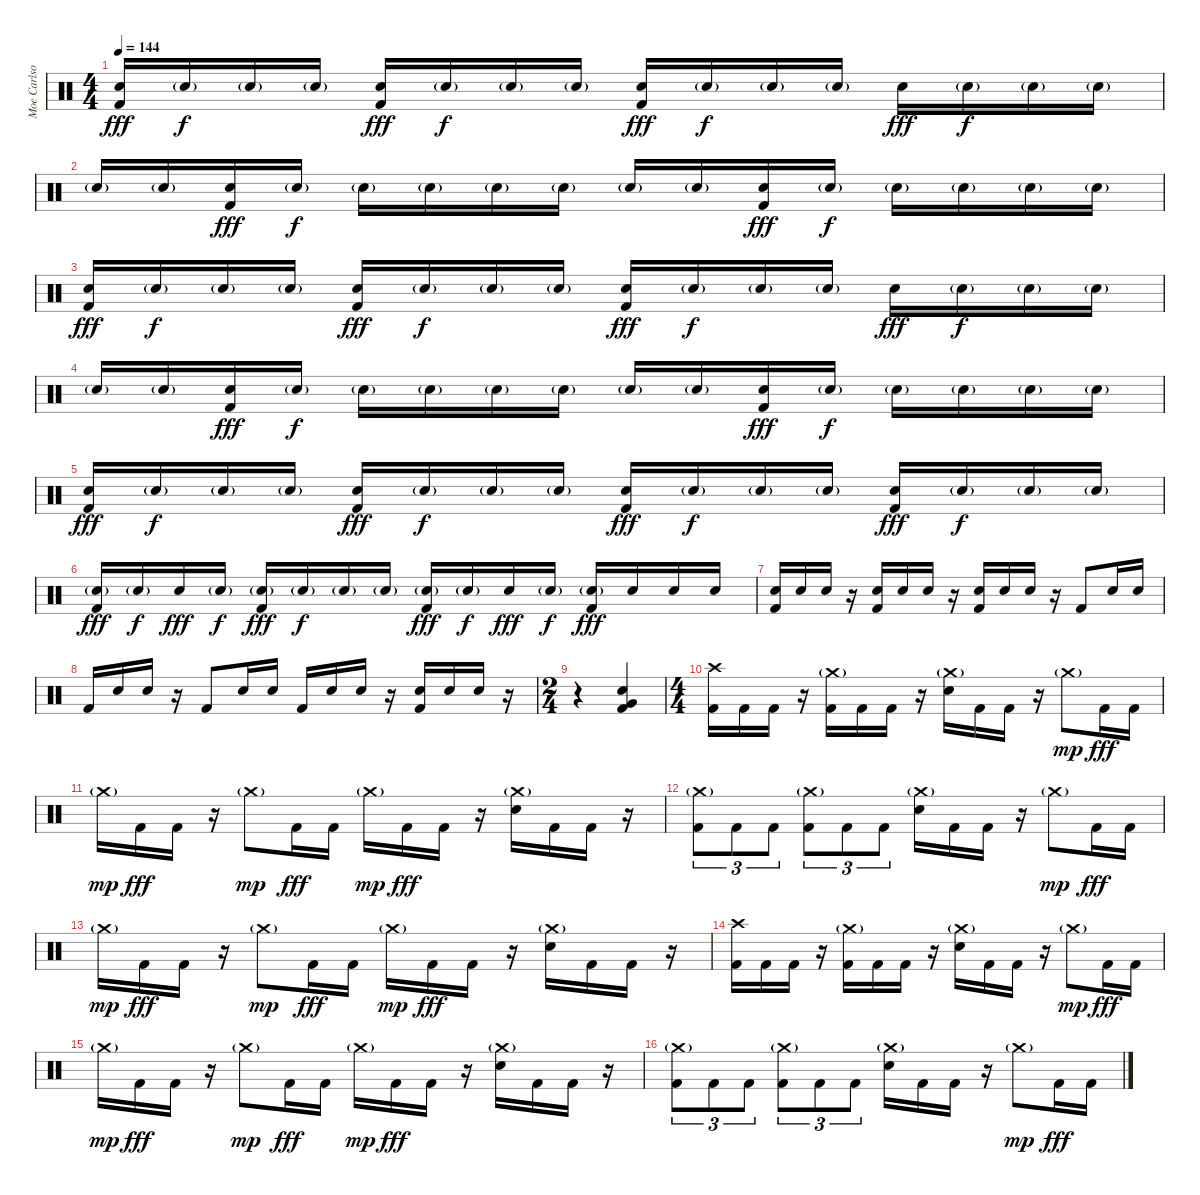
\track ("Moe Carlson" "Moe Carlso") {instrument percussion}
\staff {score}
\articulation defaults
\ts (4 4)
\tempo 144
\clef neutral
\ks c
("Electric Snare (hit)" "Kick (hit) 2").16{dy fff} "Electric Snare (hit)"{g}.16{dy f} "Electric Snare (hit)"{g}.16 "Electric Snare (hit)"{g}.16 ("Electric Snare (hit)" "Kick (hit) 2").16{dy fff} "Electric Snare (hit)"{g}.16{dy f} "Electric Snare (hit)"{g}.16 "Electric Snare (hit)"{g}.16 ("Electric Snare (hit)" "Kick (hit) 2").16{dy fff} "Electric Snare (hit)"{g}.16{dy f} "Electric Snare (hit)"{g}.16 "Electric Snare (hit)"{g}.16 "Electric Snare (hit)".16{dy fff} "Electric Snare (hit)"{g}.16{dy f} "Electric Snare (hit)"{g}.16 "Electric Snare (hit)"{g}.16 |
"Electric Snare (hit)"{g}.16 "Electric Snare (hit)"{g}.16 ("Electric Snare (hit)" "Kick (hit) 2").16{dy fff} "Electric Snare (hit)"{g}.16{dy f} "Electric Snare (hit)"{g}.16 "Electric Snare (hit)"{g}.16 "Electric Snare (hit)"{g}.16 "Electric Snare (hit)"{g}.16 "Electric Snare (hit)"{g}.16 "Electric Snare (hit)"{g}.16 ("Electric Snare (hit)" "Kick (hit) 2").16{dy fff} "Electric Snare (hit)"{g}.16{dy f} "Electric Snare (hit)"{g}.16 "Electric Snare (hit)"{g}.16 "Electric Snare (hit)"{g}.16 "Electric Snare (hit)"{g}.16 |
("Electric Snare (hit)" "Kick (hit) 2").16{dy fff} "Electric Snare (hit)"{g}.16{dy f} "Electric Snare (hit)"{g}.16 "Electric Snare (hit)"{g}.16 ("Electric Snare (hit)" "Kick (hit) 2").16{dy fff} "Electric Snare (hit)"{g}.16{dy f} "Electric Snare (hit)"{g}.16 "Electric Snare (hit)"{g}.16 ("Electric Snare (hit)" "Kick (hit) 2").16{dy fff} "Electric Snare (hit)"{g}.16{dy f} "Electric Snare (hit)"{g}.16 "Electric Snare (hit)"{g}.16 "Electric Snare (hit)".16{dy fff} "Electric Snare (hit)"{g}.16{dy f} "Electric Snare (hit)"{g}.16 "Electric Snare (hit)"{g}.16 |
"Electric Snare (hit)"{g}.16 "Electric Snare (hit)"{g}.16 ("Electric Snare (hit)" "Kick (hit) 2").16{dy fff} "Electric Snare (hit)"{g}.16{dy f} "Electric Snare (hit)"{g}.16 "Electric Snare (hit)"{g}.16 "Electric Snare (hit)"{g}.16 "Electric Snare (hit)"{g}.16 "Electric Snare (hit)"{g}.16 "Electric Snare (hit)"{g}.16 ("Electric Snare (hit)" "Kick (hit) 2").16{dy fff} "Electric Snare (hit)"{g}.16{dy f} "Electric Snare (hit)"{g}.16 "Electric Snare (hit)"{g}.16 "Electric Snare (hit)"{g}.16 "Electric Snare (hit)"{g}.16 |
("Electric Snare (hit)" "Kick (hit) 2").16{dy fff} "Electric Snare (hit)"{g}.16{dy f} "Electric Snare (hit)"{g}.16 "Electric Snare (hit)"{g}.16 ("Electric Snare (hit)" "Kick (hit) 2").16{dy fff} "Electric Snare (hit)"{g}.16{dy f} "Electric Snare (hit)"{g}.16 "Electric Snare (hit)"{g}.16 ("Electric Snare (hit)" "Kick (hit) 2").16{dy fff} "Electric Snare (hit)"{g}.16{dy f} "Electric Snare (hit)"{g}.16 "Electric Snare (hit)"{g}.16 ("Electric Snare (hit)" "Kick (hit) 2").16{dy fff} "Electric Snare (hit)"{g}.16{dy f} "Electric Snare (hit)"{g}.16 "Electric Snare (hit)"{g}.16 |
("Electric Snare (hit)"{g} "Kick (hit) 2").16{dy fff} "Electric Snare (hit)"{g}.16{dy f} "Electric Snare (hit)".16{dy fff} "Electric Snare (hit)"{g}.16{dy f} ("Electric Snare (hit)"{g} "Kick (hit) 2").16{dy fff} "Electric Snare (hit)"{g}.16{dy f} "Electric Snare (hit)"{g}.16 "Electric Snare (hit)"{g}.16 ("Electric Snare (hit)"{g} "Kick (hit) 2").16{dy fff} "Electric Snare (hit)"{g}.16{dy f} "Electric Snare (hit)".16{dy fff} "Electric Snare (hit)"{g}.16{dy f} ("Electric Snare (hit)"{g} "Kick (hit) 2").16{dy fff} "Electric Snare (hit)".16 "Electric Snare (hit)".16 "Electric Snare (hit)".16 |
("Electric Snare (hit)" "Kick (hit) 2").16 "Electric Snare (hit)".16 "Electric Snare (hit)".16 r.16 ("Electric Snare (hit)" "Kick (hit) 2").16 "Electric Snare (hit)".16 "Electric Snare (hit)".16 r.16 ("Electric Snare (hit)" "Kick (hit) 2").16 "Electric Snare (hit)".16 "Electric Snare (hit)".16 r.16 "Kick (hit) 2".8 "Electric Snare (hit)".16 "Electric Snare (hit)".16 |
"Kick (hit) 2".16 "Electric Snare (hit)".16 "Electric Snare (hit)".16 r.16 "Kick (hit) 2".8 "Electric Snare (hit)".16 "Electric Snare (hit)".16 "Kick (hit) 2".16 "Electric Snare (hit)".16 "Electric Snare (hit)".16 r.16 ("Electric Snare (hit)" "Kick (hit) 2").16 "Electric Snare (hit)".16 "Electric Snare (hit)".16 r.16 |
\ts (2 4)
r.4 ("Electric Snare (hit)" "Very Low Tom (hit)" "Kick (hit) 2").4 |
\ts (4 4)
("Crash high (hit)" "Kick (hit) 2").16 "Kick (hit) 2".16 "Kick (hit) 2".16 r.16 ("Crash medium (hit)"{g} "Kick (hit) 2").16 "Kick (hit) 2".16 "Kick (hit) 2".16 r.16 ("Crash medium (hit)"{g} "Electric Snare (hit)").16 "Kick (hit) 2".16 "Kick (hit) 2".16 r.16 "Crash medium (hit)"{g}.8{dy mp} "Kick (hit) 2".16{dy fff} "Kick (hit) 2".16 |
"Crash medium (hit)"{g}.16{dy mp} "Kick (hit) 2".16{dy fff} "Kick (hit) 2".16 r.16 "Crash medium (hit)"{g}.8{dy mp} "Kick (hit) 2".16{dy fff} "Kick (hit) 2".16 "Crash medium (hit)"{g}.16{dy mp} "Kick (hit) 2".16{dy fff} "Kick (hit) 2".16 r.16 ("Crash medium (hit)"{g} "Electric Snare (hit)").16 "Kick (hit) 2".16 "Kick (hit) 2".16 r.16 |
("Crash medium (hit)"{g} "Kick (hit) 2").8{tu (3 2)} "Kick (hit) 2".8{tu (3 2)} "Kick (hit) 2".8{tu (3 2)} ("Crash medium (hit)"{g} "Kick (hit) 2").8{tu (3 2)} "Kick (hit) 2".8{tu (3 2)} "Kick (hit) 2".8{tu (3 2)} ("Crash medium (hit)"{g} "Electric Snare (hit)").16 "Kick (hit) 2".16 "Kick (hit) 2".16 r.16 "Crash medium (hit)"{g}.8{dy mp} "Kick (hit) 2".16{dy fff} "Kick (hit) 2".16 |
"Crash medium (hit)"{g}.16{dy mp} "Kick (hit) 2".16{dy fff} "Kick (hit) 2".16 r.16 "Crash medium (hit)"{g}.8{dy mp} "Kick (hit) 2".16{dy fff} "Kick (hit) 2".16 "Crash medium (hit)"{g}.16{dy mp} "Kick (hit) 2".16{dy fff} "Kick (hit) 2".16 r.16 ("Crash medium (hit)"{g} "Electric Snare (hit)").16 "Kick (hit) 2".16 "Kick (hit) 2".16 r.16 |
("Crash high (hit)" "Kick (hit) 2").16 "Kick (hit) 2".16 "Kick (hit) 2".16 r.16 ("Crash medium (hit)"{g} "Kick (hit) 2").16 "Kick (hit) 2".16 "Kick (hit) 2".16 r.16 ("Crash medium (hit)"{g} "Electric Snare (hit)").16 "Kick (hit) 2".16 "Kick (hit) 2".16 r.16 "Crash medium (hit)"{g}.8{dy mp} "Kick (hit) 2".16{dy fff} "Kick (hit) 2".16 |
"Crash medium (hit)"{g}.16{dy mp} "Kick (hit) 2".16{dy fff} "Kick (hit) 2".16 r.16 "Crash medium (hit)"{g}.8{dy mp} "Kick (hit) 2".16{dy fff} "Kick (hit) 2".16 "Crash medium (hit)"{g}.16{dy mp} "Kick (hit) 2".16{dy fff} "Kick (hit) 2".16 r.16 ("Crash medium (hit)"{g} "Electric Snare (hit)").16 "Kick (hit) 2".16 "Kick (hit) 2".16 r.16 |
("Crash medium (hit)"{g} "Kick (hit) 2").8{tu (3 2)} "Kick (hit) 2".8{tu (3 2)} "Kick (hit) 2".8{tu (3 2)} ("Crash medium (hit)"{g} "Kick (hit) 2").8{tu (3 2)} "Kick (hit) 2".8{tu (3 2)} "Kick (hit) 2".8{tu (3 2)} ("Crash medium (hit)"{g} "Electric Snare (hit)").16 "Kick (hit) 2".16 "Kick (hit) 2".16 r.16 "Crash medium (hit)"{g}.8{dy mp} "Kick (hit) 2".16{dy fff} "Kick (hit) 2".16
